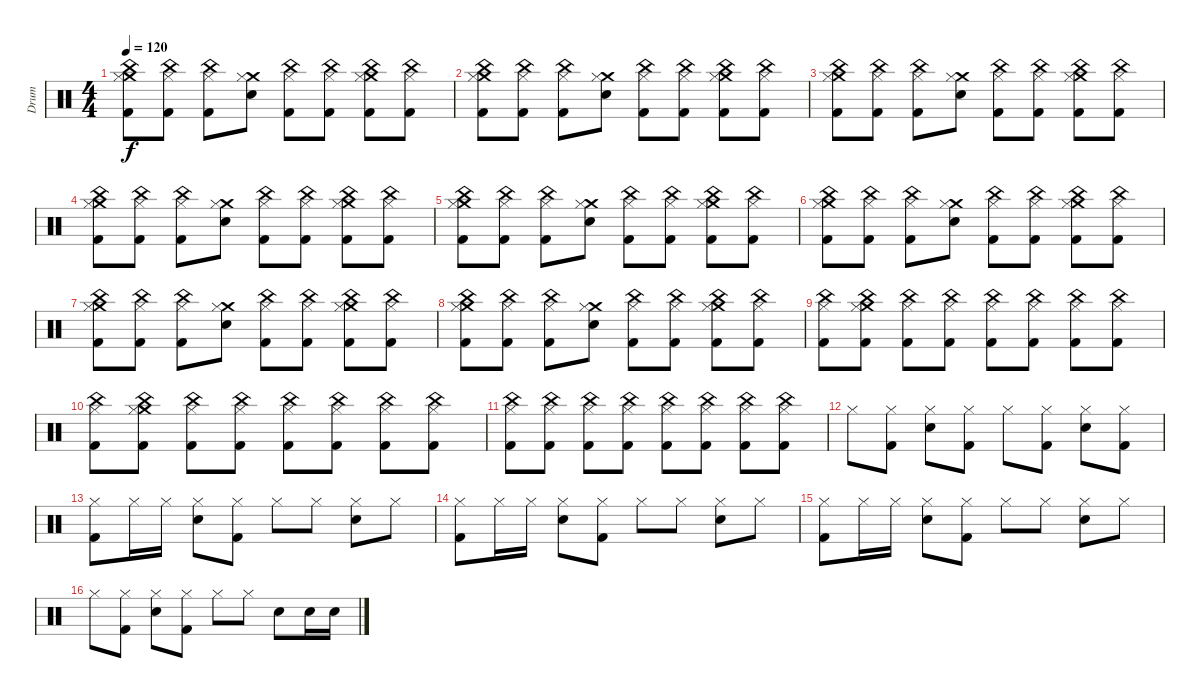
\track ("Drum" "Drum") {instrument percussion}
\staff {score}
\articulation defaults
\ts (4 4)
\tempo 120
\clef neutral
\ks c
("Crash medium (hit)" "China (hit)" "Kick (hit) 2" "Hi-Hat (closed)").8{dy f} ("China (hit)" "Kick (hit) 2" "Hi-Hat (closed)").8 ("China (hit)" "Kick (hit) 2" "Hi-Hat (closed)").8 ("Crash medium (hit)" "Snare (hit) 2" "Hi-Hat (closed)").8 ("China (hit)" "Kick (hit) 2" "Hi-Hat (closed)").8 ("China (hit)" "Kick (hit) 2" "Hi-Hat (closed)").8 ("Crash medium (hit)" "China (hit)" "Kick (hit) 2" "Hi-Hat (closed)").8 ("China (hit)" "Kick (hit) 2" "Hi-Hat (closed)").8 |
("Crash medium (hit)" "China (hit)" "Kick (hit) 2" "Hi-Hat (closed)").8 ("China (hit)" "Kick (hit) 2" "Hi-Hat (closed)").8 ("China (hit)" "Kick (hit) 2" "Hi-Hat (closed)").8 ("Crash medium (hit)" "Snare (hit) 2" "Hi-Hat (closed)").8 ("China (hit)" "Kick (hit) 2" "Hi-Hat (closed)").8 ("China (hit)" "Kick (hit) 2" "Hi-Hat (closed)").8 ("Crash medium (hit)" "China (hit)" "Kick (hit) 2" "Hi-Hat (closed)").8 ("China (hit)" "Kick (hit) 2" "Hi-Hat (closed)").8 |
("Crash medium (hit)" "China (hit)" "Kick (hit) 2" "Hi-Hat (closed)").8 ("China (hit)" "Kick (hit) 2" "Hi-Hat (closed)").8 ("China (hit)" "Kick (hit) 2" "Hi-Hat (closed)").8 ("Crash medium (hit)" "Snare (hit) 2" "Hi-Hat (closed)").8 ("China (hit)" "Kick (hit) 2" "Hi-Hat (closed)").8 ("China (hit)" "Kick (hit) 2" "Hi-Hat (closed)").8 ("Crash medium (hit)" "China (hit)" "Kick (hit) 2" "Hi-Hat (closed)").8 ("China (hit)" "Kick (hit) 2" "Hi-Hat (closed)").8 |
("Crash medium (hit)" "China (hit)" "Kick (hit) 2" "Hi-Hat (closed)").8 ("China (hit)" "Kick (hit) 2" "Hi-Hat (closed)").8 ("China (hit)" "Kick (hit) 2" "Hi-Hat (closed)").8 ("Crash medium (hit)" "Snare (hit) 2" "Hi-Hat (closed)").8 ("China (hit)" "Kick (hit) 2" "Hi-Hat (closed)").8 ("China (hit)" "Kick (hit) 2" "Hi-Hat (closed)").8 ("Crash medium (hit)" "China (hit)" "Kick (hit) 2" "Hi-Hat (closed)").8 ("China (hit)" "Kick (hit) 2" "Hi-Hat (closed)").8 |
("Crash medium (hit)" "China (hit)" "Kick (hit) 2" "Hi-Hat (closed)").8 ("China (hit)" "Kick (hit) 2" "Hi-Hat (closed)").8 ("China (hit)" "Kick (hit) 2" "Hi-Hat (closed)").8 ("Crash medium (hit)" "Snare (hit) 2" "Hi-Hat (closed)").8 ("China (hit)" "Kick (hit) 2" "Hi-Hat (closed)").8 ("China (hit)" "Kick (hit) 2" "Hi-Hat (closed)").8 ("Crash medium (hit)" "China (hit)" "Kick (hit) 2" "Hi-Hat (closed)").8 ("China (hit)" "Kick (hit) 2" "Hi-Hat (closed)").8 |
("Crash medium (hit)" "China (hit)" "Kick (hit) 2" "Hi-Hat (closed)").8 ("China (hit)" "Kick (hit) 2" "Hi-Hat (closed)").8 ("China (hit)" "Kick (hit) 2" "Hi-Hat (closed)").8 ("Crash medium (hit)" "Snare (hit) 2" "Hi-Hat (closed)").8 ("China (hit)" "Kick (hit) 2" "Hi-Hat (closed)").8 ("China (hit)" "Kick (hit) 2" "Hi-Hat (closed)").8 ("Crash medium (hit)" "China (hit)" "Kick (hit) 2" "Hi-Hat (closed)").8 ("China (hit)" "Kick (hit) 2" "Hi-Hat (closed)").8 |
("Crash medium (hit)" "China (hit)" "Kick (hit) 2" "Hi-Hat (closed)").8 ("China (hit)" "Kick (hit) 2" "Hi-Hat (closed)").8 ("China (hit)" "Kick (hit) 2" "Hi-Hat (closed)").8 ("Crash medium (hit)" "Snare (hit) 2" "Hi-Hat (closed)").8 ("China (hit)" "Kick (hit) 2" "Hi-Hat (closed)").8 ("China (hit)" "Kick (hit) 2" "Hi-Hat (closed)").8 ("Crash medium (hit)" "China (hit)" "Kick (hit) 2" "Hi-Hat (closed)").8 ("China (hit)" "Kick (hit) 2" "Hi-Hat (closed)").8 |
("Crash medium (hit)" "China (hit)" "Kick (hit) 2" "Hi-Hat (closed)").8 ("China (hit)" "Kick (hit) 2" "Hi-Hat (closed)").8 ("China (hit)" "Kick (hit) 2" "Hi-Hat (closed)").8 ("Crash medium (hit)" "Snare (hit) 2" "Hi-Hat (closed)").8 ("China (hit)" "Kick (hit) 2" "Hi-Hat (closed)").8 ("China (hit)" "Kick (hit) 2" "Hi-Hat (closed)").8 ("Crash medium (hit)" "China (hit)" "Kick (hit) 2" "Hi-Hat (closed)").8 ("China (hit)" "Kick (hit) 2" "Hi-Hat (closed)").8 |
("China (hit)" "Kick (hit) 2" "Hi-Hat (closed)").8 ("Crash medium (hit)" "China (hit)" "Kick (hit) 2" "Hi-Hat (closed)").8 ("China (hit)" "Kick (hit) 2" "Hi-Hat (closed)").8 ("China (hit)" "Kick (hit) 2" "Hi-Hat (closed)").8 ("China (hit)" "Kick (hit) 2" "Hi-Hat (closed)").8 ("China (hit)" "Kick (hit) 2" "Hi-Hat (closed)").8 ("China (hit)" "Kick (hit) 2" "Hi-Hat (closed)").8 ("China (hit)" "Kick (hit) 2" "Hi-Hat (closed)").8 |
("China (hit)" "Kick (hit) 2" "Hi-Hat (closed)").8 ("Crash medium (hit)" "China (hit)" "Kick (hit) 2" "Hi-Hat (closed)").8 ("China (hit)" "Kick (hit) 2" "Hi-Hat (closed)").8 ("China (hit)" "Kick (hit) 2" "Hi-Hat (closed)").8 ("China (hit)" "Kick (hit) 2" "Hi-Hat (closed)").8 ("China (hit)" "Kick (hit) 2" "Hi-Hat (closed)").8 ("China (hit)" "Kick (hit) 2" "Hi-Hat (closed)").8 ("China (hit)" "Kick (hit) 2" "Hi-Hat (closed)").8 |
("China (hit)" "Kick (hit) 2" "Hi-Hat (closed)").8 ("China (hit)" "Kick (hit) 2" "Hi-Hat (closed)").8 ("China (hit)" "Kick (hit) 2" "Hi-Hat (closed)").8 ("China (hit)" "Kick (hit) 2" "Hi-Hat (closed)").8 ("China (hit)" "Kick (hit) 2" "Hi-Hat (closed)").8 ("China (hit)" "Kick (hit) 2" "Hi-Hat (closed)").8 ("China (hit)" "Kick (hit) 2" "Hi-Hat (closed)").8 ("China (hit)" "Kick (hit) 2" "Hi-Hat (closed)").8 |
"Hi-Hat (closed)".8 ("Kick (hit) 2" "Hi-Hat (closed)").8 ("Snare (hit) 2" "Hi-Hat (closed)").8 ("Kick (hit) 2" "Hi-Hat (closed)").8 "Hi-Hat (closed)".8 ("Kick (hit) 2" "Hi-Hat (closed)").8 ("Snare (hit) 2" "Hi-Hat (closed)").8 ("Kick (hit) 2" "Hi-Hat (closed)").8 |
("Kick (hit) 2" "Hi-Hat (closed)").8 "Hi-Hat (closed)".16 "Hi-Hat (closed)".16 ("Snare (hit) 2" "Hi-Hat (closed)").8 ("Kick (hit) 2" "Hi-Hat (closed)").8 "Hi-Hat (closed)".8 "Hi-Hat (closed)".8 ("Snare (hit) 2" "Hi-Hat (closed)").8 "Hi-Hat (closed)".8 |
("Kick (hit) 2" "Hi-Hat (closed)").8 "Hi-Hat (closed)".16 "Hi-Hat (closed)".16 ("Snare (hit) 2" "Hi-Hat (closed)").8 ("Kick (hit) 2" "Hi-Hat (closed)").8 "Hi-Hat (closed)".8 "Hi-Hat (closed)".8 ("Snare (hit) 2" "Hi-Hat (closed)").8 "Hi-Hat (closed)".8 |
("Kick (hit) 2" "Hi-Hat (closed)").8 "Hi-Hat (closed)".16 "Hi-Hat (closed)".16 ("Snare (hit) 2" "Hi-Hat (closed)").8 ("Kick (hit) 2" "Hi-Hat (closed)").8 "Hi-Hat (closed)".8 "Hi-Hat (closed)".8 ("Snare (hit) 2" "Hi-Hat (closed)").8 "Hi-Hat (closed)".8 |
"Hi-Hat (closed)".8 ("Kick (hit) 2" "Hi-Hat (closed)").8 ("Snare (hit) 2" "Hi-Hat (closed)").8 ("Kick (hit) 2" "Hi-Hat (closed)").8 "Hi-Hat (closed)".8 "Hi-Hat (closed)".8 "Snare (hit) 2".8 "Snare (hit) 2".16 "Snare (hit) 2".16
